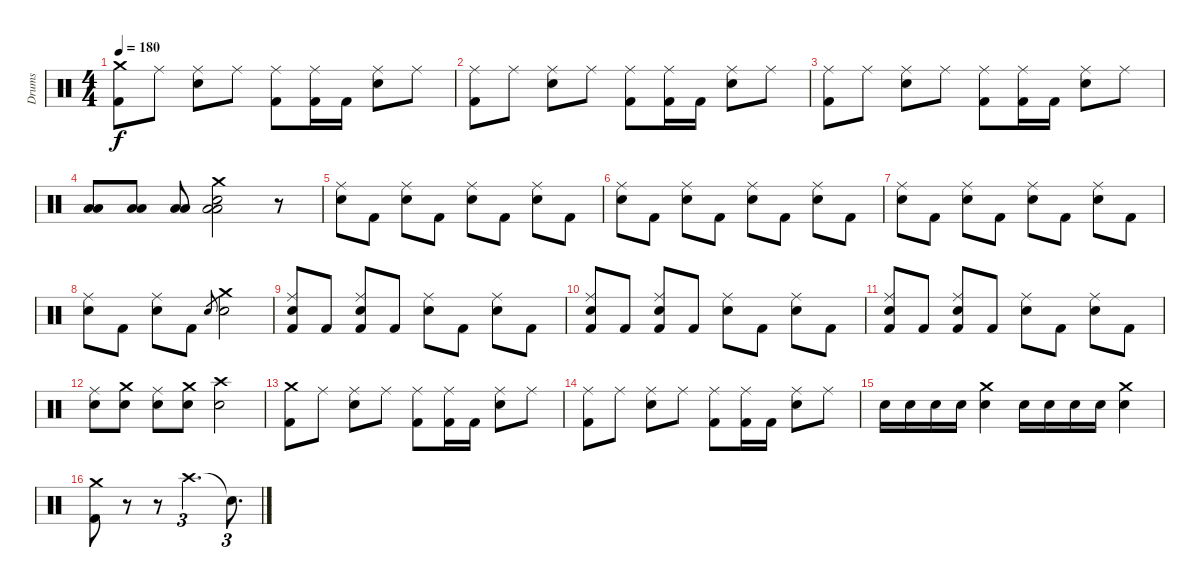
\track ("Drums" "Drums") {instrument percussion}
\staff {score}
\articulation defaults
\ts (4 4)
\tempo 180
\clef neutral
\ks c
("Crash medium (hit)" "Kick (hit) 2").8{dy f} "Ride (middle)".8 ("Ride (middle)" "Electric Snare (hit)").8 "Ride (middle)".8 ("Ride (middle)" "Kick (hit) 2").8 ("Ride (middle)" "Kick (hit) 2").16 "Kick (hit) 2".16 ("Ride (middle)" "Electric Snare (hit)").8 "Ride (middle)".8 |
("Ride (middle)" "Kick (hit) 2").8 "Ride (middle)".8 ("Ride (middle)" "Electric Snare (hit)").8 "Ride (middle)".8 ("Ride (middle)" "Kick (hit) 2").8 ("Ride (middle)" "Kick (hit) 2").16 "Kick (hit) 2".16 ("Ride (middle)" "Electric Snare (hit)").8 "Ride (middle)".8 |
("Ride (middle)" "Kick (hit) 2").8 "Ride (middle)".8 ("Ride (middle)" "Electric Snare (hit)").8 "Ride (middle)".8 ("Ride (middle)" "Kick (hit) 2").8 ("Ride (middle)" "Kick (hit) 2").16 "Kick (hit) 2".16 ("Ride (middle)" "Electric Snare (hit)").8 "Ride (middle)".8 |
("Low Tom (hit)" "Low Tom (hit)").8 ("Low Tom (hit)" "Low Tom (hit)").8 ("Low Tom (hit)" "Low Tom (hit)").8 ("Crash medium (hit)" "Electric Snare (hit)" "Low Tom (hit)" "Low Tom (hit)").2 r.8 |
("Ride (middle)" "Electric Snare (hit)").8 "Kick (hit) 2".8 ("Ride (middle)" "Electric Snare (hit)").8 "Kick (hit) 2".8 ("Ride (middle)" "Electric Snare (hit)").8 "Kick (hit) 2".8 ("Ride (middle)" "Electric Snare (hit)").8 "Kick (hit) 2".8 |
("Ride (middle)" "Electric Snare (hit)").8 "Kick (hit) 2".8 ("Ride (middle)" "Electric Snare (hit)").8 "Kick (hit) 2".8 ("Ride (middle)" "Electric Snare (hit)").8 "Kick (hit) 2".8 ("Ride (middle)" "Electric Snare (hit)").8 "Kick (hit) 2".8 |
("Ride (middle)" "Electric Snare (hit)").8 "Kick (hit) 2".8 ("Ride (middle)" "Electric Snare (hit)").8 "Kick (hit) 2".8 ("Ride (middle)" "Electric Snare (hit)").8 "Kick (hit) 2".8 ("Ride (middle)" "Electric Snare (hit)").8 "Kick (hit) 2".8 |
("Ride (middle)" "Electric Snare (hit)").8 "Kick (hit) 2".8 ("Ride (middle)" "Electric Snare (hit)").8 "Kick (hit) 2".8 "Electric Snare (hit)".8{gr} ("Crash medium (hit)" "Electric Snare (hit)").2 |
("Ride (middle)" "Kick (hit) 2" "Electric Snare (hit)").8 "Kick (hit) 2".8 ("Ride (middle)" "Kick (hit) 2" "Electric Snare (hit)").8 "Kick (hit) 2".8 ("Ride (middle)" "Electric Snare (hit)").8 "Kick (hit) 2".8 ("Ride (middle)" "Electric Snare (hit)").8 "Kick (hit) 2".8 |
("Ride (middle)" "Kick (hit) 2" "Electric Snare (hit)").8 "Kick (hit) 2".8 ("Ride (middle)" "Kick (hit) 2" "Electric Snare (hit)").8 "Kick (hit) 2".8 ("Ride (middle)" "Electric Snare (hit)").8 "Kick (hit) 2".8 ("Ride (middle)" "Electric Snare (hit)").8 "Kick (hit) 2".8 |
("Ride (middle)" "Kick (hit) 2" "Electric Snare (hit)").8 "Kick (hit) 2".8 ("Ride (middle)" "Kick (hit) 2" "Electric Snare (hit)").8 "Kick (hit) 2".8 ("Ride (middle)" "Electric Snare (hit)").8 "Kick (hit) 2".8 ("Ride (middle)" "Electric Snare (hit)").8 "Kick (hit) 2".8 |
("Ride (middle)" "Electric Snare (hit)").8 ("Crash medium (hit)" "Electric Snare (hit)").8 ("Ride (middle)" "Electric Snare (hit)").8 ("Crash medium (hit)" "Electric Snare (hit)").8 ("Crash high (hit)" "Electric Snare (hit)").2 |
("Crash medium (hit)" "Kick (hit) 2").8 "Ride (middle)".8 ("Ride (middle)" "Electric Snare (hit)").8 "Ride (middle)".8 ("Ride (middle)" "Kick (hit) 2").8 ("Ride (middle)" "Kick (hit) 2").16 "Kick (hit) 2".16 ("Ride (middle)" "Electric Snare (hit)").8 "Ride (middle)".8 |
("Ride (middle)" "Kick (hit) 2").8 "Ride (middle)".8 ("Ride (middle)" "Electric Snare (hit)").8 "Ride (middle)".8 ("Ride (middle)" "Kick (hit) 2").8 ("Ride (middle)" "Kick (hit) 2").16 "Kick (hit) 2".16 ("Ride (middle)" "Electric Snare (hit)").8 "Ride (middle)".8 |
"Electric Snare (hit)".16 "Electric Snare (hit)".16 "Electric Snare (hit)".16 "Electric Snare (hit)".16 ("Electric Snare (hit)" "Crash medium (hit)").4 "Electric Snare (hit)".16 "Electric Snare (hit)".16 "Electric Snare (hit)".16 "Electric Snare (hit)".16 ("Electric Snare (hit)" "Crash medium (hit)").4 |
("Crash medium (hit)" "Kick (hit) 2").8 r.8 r.8 "Crash high (hit)".2{d tu (3 2)} "Snare (hit)"{t}.8{d tu (3 2)}
